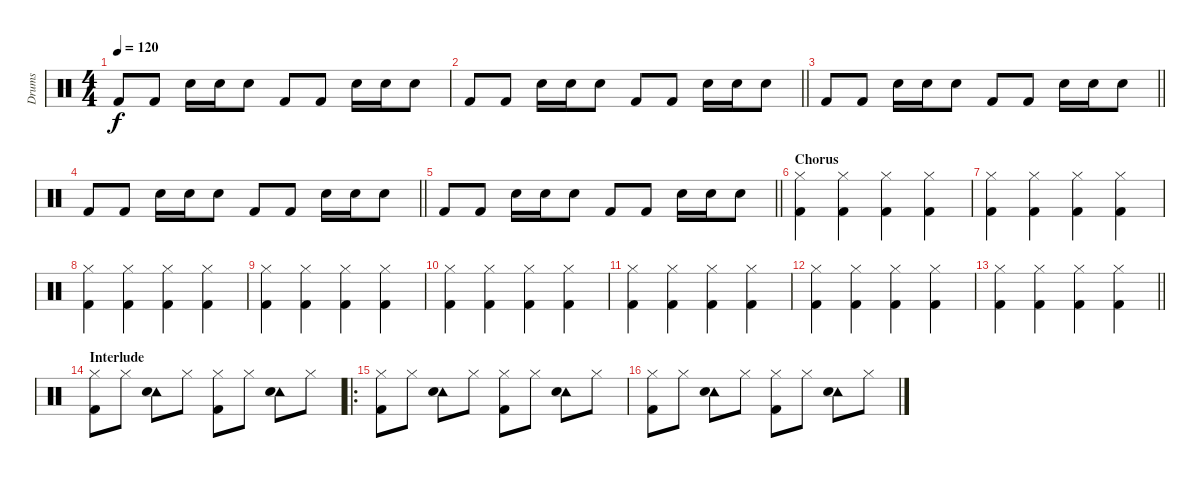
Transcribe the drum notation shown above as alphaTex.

\track ("Drums" "Drums") {instrument percussion}
\staff {score}
\articulation defaults
\ts (4 4)
\tempo 120
\clef neutral
\ks c "Kick (hit) 2".8{dy f} "Kick (hit) 2".8 "Snare (hit) 2".16 "Snare (hit) 2".16 "Snare (hit) 2".8 "Kick (hit) 2".8 "Kick (hit) 2".8 "Snare (hit) 2".16 "Snare (hit) 2".16 "Snare (hit) 2".8
|
\barLineRight lightlight "Kick (hit) 2".8 "Kick (hit) 2".8 "Snare (hit) 2".16 "Snare (hit) 2".16 "Snare (hit) 2".8 "Kick (hit) 2".8 "Kick (hit) 2".8 "Snare (hit) 2".16 "Snare (hit) 2".16 "Snare (hit) 2".8
|
\barLineRight lightlight "Kick (hit) 2".8 "Kick (hit) 2".8 "Snare (hit) 2".16 "Snare (hit) 2".16 "Snare (hit) 2".8 "Kick (hit) 2".8 "Kick (hit) 2".8 "Snare (hit) 2".16 "Snare (hit) 2".16 "Snare (hit) 2".8
|
\barLineRight lightlight "Kick (hit) 2".8 "Kick (hit) 2".8 "Snare (hit) 2".16 "Snare (hit) 2".16 "Snare (hit) 2".8 "Kick (hit) 2".8 "Kick (hit) 2".8 "Snare (hit) 2".16 "Snare (hit) 2".16 "Snare (hit) 2".8
|
\barLineRight lightlight "Kick (hit) 2".8 "Kick (hit) 2".8 "Snare (hit) 2".16 "Snare (hit) 2".16 "Snare (hit) 2".8 "Kick (hit) 2".8 "Kick (hit) 2".8 "Snare (hit) 2".16 "Snare (hit) 2".16 "Snare (hit) 2".8
|
\section ("" "Chorus")
("Hi-Hat (closed)" "Kick (hit) 2").4 ("Hi-Hat (closed)" "Kick (hit) 2").4 ("Hi-Hat (closed)" "Kick (hit) 2").4 ("Hi-Hat (closed)" "Kick (hit) 2").4 |
("Hi-Hat (closed)" "Kick (hit) 2").4 ("Hi-Hat (closed)" "Kick (hit) 2").4 ("Hi-Hat (closed)" "Kick (hit) 2").4 ("Hi-Hat (closed)" "Kick (hit) 2").4 |
("Hi-Hat (closed)" "Kick (hit) 2").4 ("Hi-Hat (closed)" "Kick (hit) 2").4 ("Hi-Hat (closed)" "Kick (hit) 2").4 ("Hi-Hat (closed)" "Kick (hit) 2").4 |
("Hi-Hat (closed)" "Kick (hit) 2").4 ("Hi-Hat (closed)" "Kick (hit) 2").4 ("Hi-Hat (closed)" "Kick (hit) 2").4 ("Hi-Hat (closed)" "Kick (hit) 2").4 |
("Hi-Hat (closed)" "Kick (hit) 2").4 ("Hi-Hat (closed)" "Kick (hit) 2").4 ("Hi-Hat (closed)" "Kick (hit) 2").4 ("Hi-Hat (closed)" "Kick (hit) 2").4 |
("Hi-Hat (closed)" "Kick (hit) 2").4 ("Hi-Hat (closed)" "Kick (hit) 2").4 ("Hi-Hat (closed)" "Kick (hit) 2").4 ("Hi-Hat (closed)" "Kick (hit) 2").4 |
("Hi-Hat (closed)" "Kick (hit) 2").4 ("Hi-Hat (closed)" "Kick (hit) 2").4 ("Hi-Hat (closed)" "Kick (hit) 2").4 ("Hi-Hat (closed)" "Kick (hit) 2").4 |
\barLineRight lightlight
("Hi-Hat (closed)" "Kick (hit) 2").4 ("Hi-Hat (closed)" "Kick (hit) 2").4 ("Hi-Hat (closed)" "Kick (hit) 2").4 ("Hi-Hat (closed)" "Kick (hit) 2").4 |
\section ("" "Interlude")
("Hi-Hat (closed)" "Kick (hit) 2").8 "Hi-Hat (closed)".8 ("Tambourine (hit)" "Snare (hit) 2").8 "Hi-Hat (closed)".8 ("Hi-Hat (closed)" "Kick (hit) 2").8 "Hi-Hat (closed)".8 ("Tambourine (hit)" "Snare (hit) 2").8 "Hi-Hat (closed)".8 |
\ro
("Hi-Hat (closed)" "Kick (hit) 2").8 "Hi-Hat (closed)".8 ("Tambourine (hit)" "Snare (hit) 2").8 "Hi-Hat (closed)".8 ("Hi-Hat (closed)" "Kick (hit) 2").8 "Hi-Hat (closed)".8 ("Tambourine (hit)" "Snare (hit) 2").8 "Hi-Hat (closed)".8 |
("Hi-Hat (closed)" "Kick (hit) 2").8 "Hi-Hat (closed)".8 ("Tambourine (hit)" "Snare (hit) 2").8 "Hi-Hat (closed)".8 ("Hi-Hat (closed)" "Kick (hit) 2").8 "Hi-Hat (closed)".8 ("Tambourine (hit)" "Snare (hit) 2").8 "Hi-Hat (closed)".8
